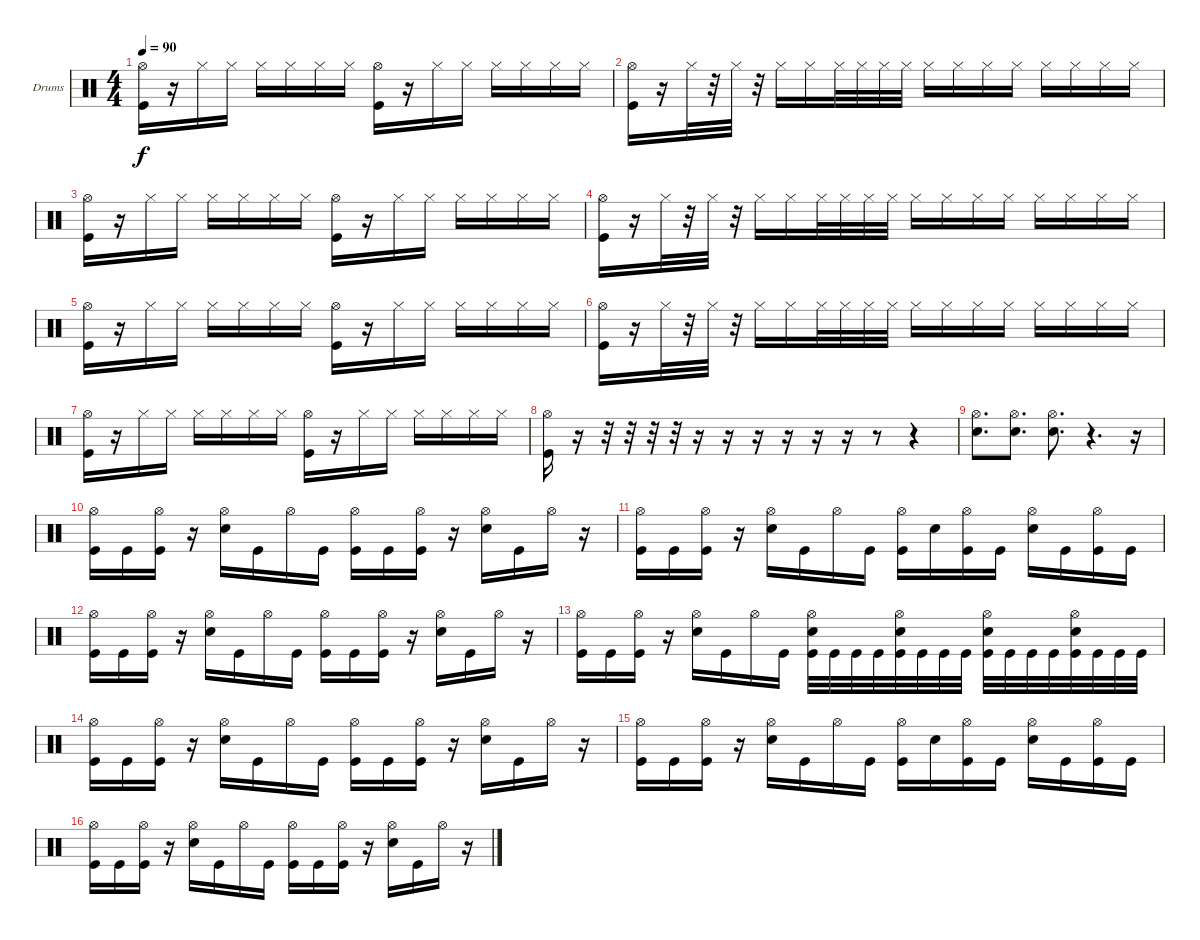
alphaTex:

\bracketExtendMode groupsimilarinstruments
\firstSystemTrackNameOrientation horizontal
\otherSystemsTrackNameOrientation horizontal
\track ("Drumkit" "Drums") {instrument percussion}
\staff {score}
\articulation defaults
\ts (4 4)
\beaming (8 2 2 2 2)
\tempo 90
\clef neutral
\ks c
("Hi-Hat (open)" "Kick (hit)").16{dy f} r.16 "Hi-Hat (closed)".16 "Hi-Hat (closed)".16 "Hi-Hat (closed)".16 "Hi-Hat (closed)".16 "Hi-Hat (closed)".16 "Hi-Hat (closed)".16 ("Hi-Hat (open)" "Kick (hit)").16 r.16 "Hi-Hat (closed)".16 "Hi-Hat (closed)".16 "Hi-Hat (closed)".16 "Hi-Hat (closed)".16 "Hi-Hat (closed)".16 "Hi-Hat (closed)".16 |
("Hi-Hat (open)" "Kick (hit)").16 r.16 "Hi-Hat (closed)".32 r.32 "Hi-Hat (closed)".32 r.32 "Hi-Hat (closed)".16 "Hi-Hat (closed)".16 "Hi-Hat (closed)".32 "Hi-Hat (closed)".32 "Hi-Hat (closed)".32 "Hi-Hat (closed)".32 "Hi-Hat (closed)".16 "Hi-Hat (closed)".16 "Hi-Hat (closed)".16 "Hi-Hat (closed)".16 "Hi-Hat (closed)".16 "Hi-Hat (closed)".16 "Hi-Hat (closed)".16 "Hi-Hat (closed)".16 |
("Hi-Hat (open)" "Kick (hit)").16 r.16 "Hi-Hat (closed)".16 "Hi-Hat (closed)".16 "Hi-Hat (closed)".16 "Hi-Hat (closed)".16 "Hi-Hat (closed)".16 "Hi-Hat (closed)".16 ("Hi-Hat (open)" "Kick (hit)").16 r.16 "Hi-Hat (closed)".16 "Hi-Hat (closed)".16 "Hi-Hat (closed)".16 "Hi-Hat (closed)".16 "Hi-Hat (closed)".16 "Hi-Hat (closed)".16 |
("Hi-Hat (open)" "Kick (hit)").16 r.16 "Hi-Hat (closed)".32 r.32 "Hi-Hat (closed)".32 r.32 "Hi-Hat (closed)".16 "Hi-Hat (closed)".16 "Hi-Hat (closed)".32 "Hi-Hat (closed)".32 "Hi-Hat (closed)".32 "Hi-Hat (closed)".32 "Hi-Hat (closed)".16 "Hi-Hat (closed)".16 "Hi-Hat (closed)".16 "Hi-Hat (closed)".16 "Hi-Hat (closed)".16 "Hi-Hat (closed)".16 "Hi-Hat (closed)".16 "Hi-Hat (closed)".16 |
("Hi-Hat (open)" "Kick (hit)").16 r.16 "Hi-Hat (closed)".16 "Hi-Hat (closed)".16 "Hi-Hat (closed)".16 "Hi-Hat (closed)".16 "Hi-Hat (closed)".16 "Hi-Hat (closed)".16 ("Hi-Hat (open)" "Kick (hit)").16 r.16 "Hi-Hat (closed)".16 "Hi-Hat (closed)".16 "Hi-Hat (closed)".16 "Hi-Hat (closed)".16 "Hi-Hat (closed)".16 "Hi-Hat (closed)".16 |
("Hi-Hat (open)" "Kick (hit)").16 r.16 "Hi-Hat (closed)".32 r.32 "Hi-Hat (closed)".32 r.32 "Hi-Hat (closed)".16 "Hi-Hat (closed)".16 "Hi-Hat (closed)".32 "Hi-Hat (closed)".32 "Hi-Hat (closed)".32 "Hi-Hat (closed)".32 "Hi-Hat (closed)".16 "Hi-Hat (closed)".16 "Hi-Hat (closed)".16 "Hi-Hat (closed)".16 "Hi-Hat (closed)".16 "Hi-Hat (closed)".16 "Hi-Hat (closed)".16 "Hi-Hat (closed)".16 |
("Hi-Hat (open)" "Kick (hit)").16 r.16 "Hi-Hat (closed)".16 "Hi-Hat (closed)".16 "Hi-Hat (closed)".16 "Hi-Hat (closed)".16 "Hi-Hat (closed)".16 "Hi-Hat (closed)".16 ("Hi-Hat (open)" "Kick (hit)").16 r.16 "Hi-Hat (closed)".16 "Hi-Hat (closed)".16 "Hi-Hat (closed)".16 "Hi-Hat (closed)".16 "Hi-Hat (closed)".16 "Hi-Hat (closed)".16 |
("Hi-Hat (open)" "Kick (hit)").16 r.16 r.32 r.32 r.32 r.32 r.16 r.16 r.16 r.16 r.16 r.16 r.8 r.4 |
("Hi-Hat (open)" "Snare (hit) 2").8{d} ("Hi-Hat (open)" "Snare (hit) 2").8{d} ("Hi-Hat (open)" "Snare (hit) 2").8{d} r.4{d} r.16 |
("Hi-Hat (open)" "Kick (hit)").16 "Kick (hit)".16 ("Hi-Hat (open)" "Kick (hit)").16 r.16 ("Hi-Hat (open)" "Snare (hit) 2").16 "Kick (hit)".16 "Hi-Hat (open)".16 "Kick (hit)".16 ("Hi-Hat (open)" "Kick (hit)").16 "Kick (hit)".16 ("Hi-Hat (open)" "Kick (hit)").16 r.16 ("Hi-Hat (open)" "Snare (hit) 2").16 "Kick (hit)".16 "Hi-Hat (open)".16 r.16 |
("Hi-Hat (open)" "Kick (hit)").16 "Kick (hit)".16 ("Hi-Hat (open)" "Kick (hit)").16 r.16 ("Hi-Hat (open)" "Snare (hit) 2").16 "Kick (hit)".16 "Hi-Hat (open)".16 "Kick (hit)".16 ("Hi-Hat (open)" "Kick (hit)").16 "Snare (hit) 2".16 ("Hi-Hat (open)" "Kick (hit)").16 "Kick (hit)".16 ("Hi-Hat (open)" "Snare (hit) 2").16 "Kick (hit)".16 ("Hi-Hat (open)" "Kick (hit)").16 "Kick (hit)".16 |
("Hi-Hat (open)" "Kick (hit)").16 "Kick (hit)".16 ("Hi-Hat (open)" "Kick (hit)").16 r.16 ("Hi-Hat (open)" "Snare (hit) 2").16 "Kick (hit)".16 "Hi-Hat (open)".16 "Kick (hit)".16 ("Hi-Hat (open)" "Kick (hit)").16 "Kick (hit)".16 ("Hi-Hat (open)" "Kick (hit)").16 r.16 ("Hi-Hat (open)" "Snare (hit) 2").16 "Kick (hit)".16 "Hi-Hat (open)".16 r.16 |
("Hi-Hat (open)" "Kick (hit)").16 "Kick (hit)".16 ("Hi-Hat (open)" "Kick (hit)").16 r.16 ("Hi-Hat (open)" "Snare (hit) 2").16 "Kick (hit)".16 "Hi-Hat (open)".16 "Kick (hit)".16 ("Hi-Hat (open)" "Snare (hit) 2" "Kick (hit)").32 "Kick (hit)".32 "Kick (hit)".32 "Kick (hit)".32 ("Hi-Hat (open)" "Snare (hit) 2" "Kick (hit)").32 "Kick (hit)".32 "Kick (hit)".32 "Kick (hit)".32 ("Hi-Hat (open)" "Snare (hit) 2" "Kick (hit)").32 "Kick (hit)".32 "Kick (hit)".32 "Kick (hit)".32 ("Hi-Hat (open)" "Snare (hit) 2" "Kick (hit)").32 "Kick (hit)".32 "Kick (hit)".32 "Kick (hit)".32 |
("Hi-Hat (open)" "Kick (hit)").16 "Kick (hit)".16 ("Hi-Hat (open)" "Kick (hit)").16 r.16 ("Hi-Hat (open)" "Snare (hit) 2").16 "Kick (hit)".16 "Hi-Hat (open)".16 "Kick (hit)".16 ("Hi-Hat (open)" "Kick (hit)").16 "Kick (hit)".16 ("Hi-Hat (open)" "Kick (hit)").16 r.16 ("Hi-Hat (open)" "Snare (hit) 2").16 "Kick (hit)".16 "Hi-Hat (open)".16 r.16 |
("Hi-Hat (open)" "Kick (hit)").16 "Kick (hit)".16 ("Hi-Hat (open)" "Kick (hit)").16 r.16 ("Hi-Hat (open)" "Snare (hit) 2").16 "Kick (hit)".16 "Hi-Hat (open)".16 "Kick (hit)".16 ("Hi-Hat (open)" "Kick (hit)").16 "Snare (hit) 2".16 ("Hi-Hat (open)" "Kick (hit)").16 "Kick (hit)".16 ("Hi-Hat (open)" "Snare (hit) 2").16 "Kick (hit)".16 ("Hi-Hat (open)" "Kick (hit)").16 "Kick (hit)".16 |
("Hi-Hat (open)" "Kick (hit)").16 "Kick (hit)".16 ("Hi-Hat (open)" "Kick (hit)").16 r.16 ("Hi-Hat (open)" "Snare (hit) 2").16 "Kick (hit)".16 "Hi-Hat (open)".16 "Kick (hit)".16 ("Hi-Hat (open)" "Kick (hit)").16 "Kick (hit)".16 ("Hi-Hat (open)" "Kick (hit)").16 r.16 ("Hi-Hat (open)" "Snare (hit) 2").16 "Kick (hit)".16 "Hi-Hat (open)".16 r.16
